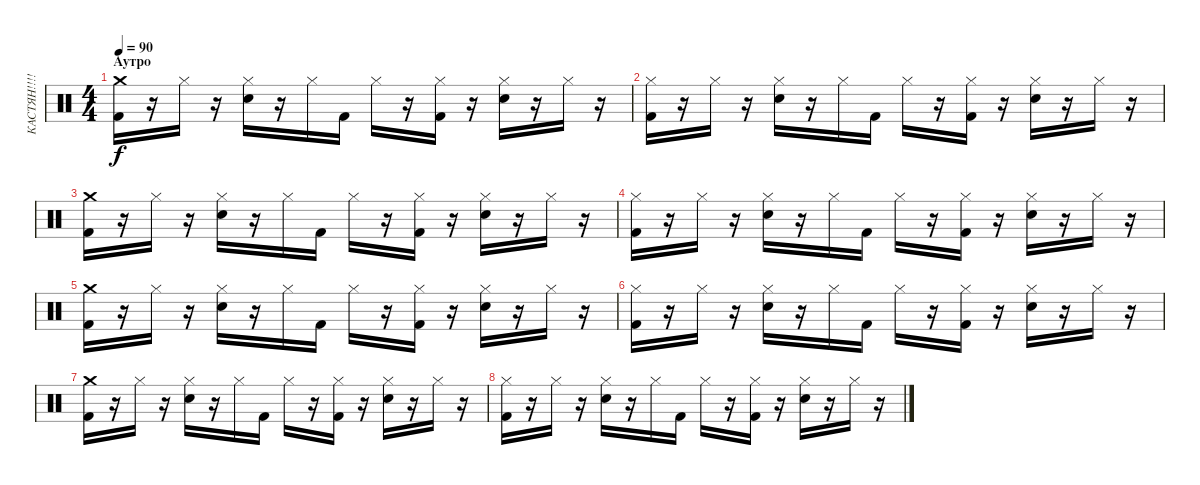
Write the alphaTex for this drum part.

\track ("КАСТЯН!!!!" "КАСТЯН!!!!") {instrument percussion}
\staff {score}
\articulation defaults
\ts (4 4)
\section ("" "Аутро")
\tempo 90
\clef neutral
\ks c
("Crash medium (hit)" "Kick (hit) 2").16{dy f} r.16 "Hi-Hat (closed)".16 r.16 ("Hi-Hat (closed)" "Snare (hit) 2").16 r.16 "Hi-Hat (closed)".16 "Kick (hit) 2".16 "Hi-Hat (closed)".16 r.16 ("Hi-Hat (closed)" "Kick (hit) 2").16 r.16 ("Hi-Hat (closed)" "Snare (hit) 2").16 r.16 "Hi-Hat (closed)".16 r.16 |
("Hi-Hat (closed)" "Kick (hit) 2").16 r.16 "Hi-Hat (closed)".16 r.16 ("Hi-Hat (closed)" "Snare (hit) 2").16 r.16 "Hi-Hat (closed)".16 "Kick (hit) 2".16 "Hi-Hat (closed)".16 r.16 ("Hi-Hat (closed)" "Kick (hit) 2").16 r.16 ("Hi-Hat (closed)" "Snare (hit) 2").16 r.16 "Hi-Hat (closed)".16 r.16 |
("Crash medium (hit)" "Kick (hit) 2").16 r.16 "Hi-Hat (closed)".16 r.16 ("Hi-Hat (closed)" "Snare (hit) 2").16 r.16 "Hi-Hat (closed)".16 "Kick (hit) 2".16 "Hi-Hat (closed)".16 r.16 ("Hi-Hat (closed)" "Kick (hit) 2").16 r.16 ("Hi-Hat (closed)" "Snare (hit) 2").16 r.16 "Hi-Hat (closed)".16 r.16 |
("Hi-Hat (closed)" "Kick (hit) 2").16 r.16 "Hi-Hat (closed)".16 r.16 ("Hi-Hat (closed)" "Snare (hit) 2").16 r.16 "Hi-Hat (closed)".16 "Kick (hit) 2".16 "Hi-Hat (closed)".16 r.16 ("Hi-Hat (closed)" "Kick (hit) 2").16 r.16 ("Hi-Hat (closed)" "Snare (hit) 2").16 r.16 "Hi-Hat (closed)".16 r.16 |
("Crash medium (hit)" "Kick (hit) 2").16 r.16 "Hi-Hat (closed)".16 r.16 ("Hi-Hat (closed)" "Snare (hit) 2").16 r.16 "Hi-Hat (closed)".16 "Kick (hit) 2".16 "Hi-Hat (closed)".16 r.16 ("Hi-Hat (closed)" "Kick (hit) 2").16 r.16 ("Hi-Hat (closed)" "Snare (hit) 2").16 r.16 "Hi-Hat (closed)".16 r.16 |
("Hi-Hat (closed)" "Kick (hit) 2").16 r.16 "Hi-Hat (closed)".16 r.16 ("Hi-Hat (closed)" "Snare (hit) 2").16 r.16 "Hi-Hat (closed)".16 "Kick (hit) 2".16 "Hi-Hat (closed)".16 r.16 ("Hi-Hat (closed)" "Kick (hit) 2").16 r.16 ("Hi-Hat (closed)" "Snare (hit) 2").16 r.16 "Hi-Hat (closed)".16 r.16 |
("Crash medium (hit)" "Kick (hit) 2").16 r.16 "Hi-Hat (closed)".16 r.16 ("Hi-Hat (closed)" "Snare (hit) 2").16 r.16 "Hi-Hat (closed)".16 "Kick (hit) 2".16 "Hi-Hat (closed)".16 r.16 ("Hi-Hat (closed)" "Kick (hit) 2").16 r.16 ("Hi-Hat (closed)" "Snare (hit) 2").16 r.16 "Hi-Hat (closed)".16 r.16 |
("Hi-Hat (closed)" "Kick (hit) 2").16 r.16 "Hi-Hat (closed)".16 r.16 ("Hi-Hat (closed)" "Snare (hit) 2").16 r.16 "Hi-Hat (closed)".16 "Kick (hit) 2".16 "Hi-Hat (closed)".16 r.16 ("Hi-Hat (closed)" "Kick (hit) 2").16 r.16 ("Hi-Hat (closed)" "Snare (hit) 2").16 r.16 "Hi-Hat (closed)".16 r.16
